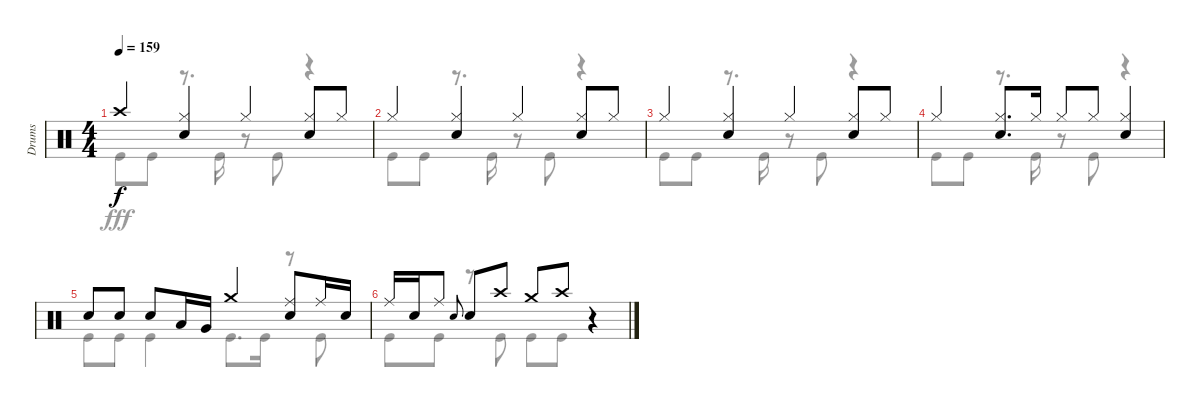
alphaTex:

\track ("Drums" "Drums") {instrument percussion}
\staff {score}
\articulation defaults
\voice
\ts (4 4)
\tempo 159
\clef neutral
\ks c "Crash high (hit)".4{dy f}
("Hi-Hat (closed)" "Snare (hit) 2").4 "Hi-Hat (closed)".4 ("Hi-Hat (closed)" "Snare (hit) 2").8 "Hi-Hat (closed)".8 |
"Hi-Hat (closed)".4 ("Hi-Hat (closed)" "Snare (hit) 2").4 "Hi-Hat (closed)".4 ("Hi-Hat (closed)" "Snare (hit) 2").8 "Hi-Hat (closed)".8 |
"Hi-Hat (closed)".4 ("Hi-Hat (closed)" "Snare (hit) 2").4 "Hi-Hat (closed)".4 ("Hi-Hat (closed)" "Snare (hit) 2").8 "Hi-Hat (closed)".8 |
"Hi-Hat (closed)".4 ("Hi-Hat (closed)" "Snare (hit) 2").8{d} "Hi-Hat (closed)".16 "Hi-Hat (closed)".8 "Hi-Hat (closed)".8 ("Hi-Hat (closed)" "Snare (hit) 2").4 |
"Snare (hit) 2".8 "Snare (hit) 2".8 "Snare (hit) 2".8 "Low Tom (hit)".16 "Very Low Tom (hit)".16 "Crash medium (hit)".4 ("Ride (middle)" "Snare (hit) 2").8 "Ride (middle)".16 "Snare (hit) 2".16 |
"Ride (middle)".16 "Snare (hit) 2".16 "Ride (middle)".8 "Snare (hit) 2".8{gr onbeat} "Snare (hit) 2".8 "Crash high (hit)".8 "Crash medium (hit)".8 "Crash high (hit)".8 r.4
\voice
\clef neutral
\ottava regular
\simile none
\ks c "Kick (hit)".8{dy fff} "Kick (hit)".8
r.8{d} "Kick (hit)".16 r.8 "Kick (hit)".8 r.4 |
"Kick (hit)".8 "Kick (hit)".8 r.8{d} "Kick (hit)".16 r.8 "Kick (hit)".8 r.4 |
"Kick (hit)".8 "Kick (hit)".8 r.8{d} "Kick (hit)".16 r.8 "Kick (hit)".8 r.4 |
"Kick (hit)".8 "Kick (hit)".8 r.8{d} "Kick (hit)".16 r.8 "Kick (hit)".8 r.4 |
"Kick (hit)".8 "Kick (hit)".8 "Kick (hit)".4 "Kick (hit)".8{d} "Kick (hit)".16 r.8 "Kick (hit)".8 |
"Kick (hit)".8 "Kick (hit)".8 r.8 "Kick (hit)".8 "Kick (hit)".8 "Kick (hit)".8 r.4
